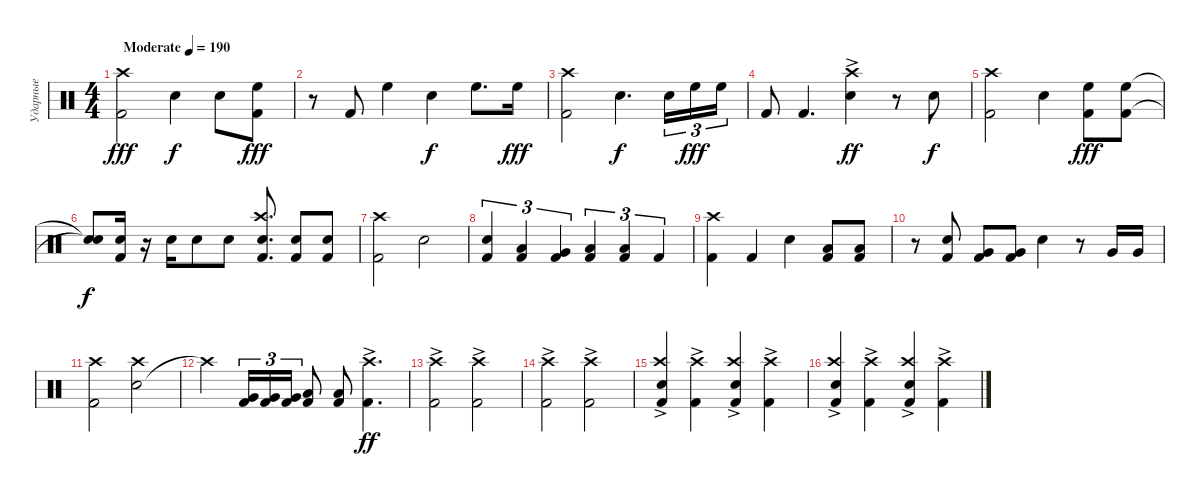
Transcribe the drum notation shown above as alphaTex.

\track ("Ударные" "Ударные") {instrument percussion}
\staff {score}
\articulation defaults
\ts (4 4)
\tempo (190 "Moderate")
\clef neutral
\ks c
("Kick (hit) 2" "Crash high (hit)").2{dy fff} "Snare (hit) 2".4{dy f} "Snare (hit) 2".8 ("Kick (hit) 2" "High Floor Tom (hit)").8{dy fff} |
r.8 "Kick (hit) 2".8 "High Floor Tom (hit)".4 "Snare (hit) 2".4{dy f} "High Floor Tom (hit)".8{d} "High Floor Tom (hit)".16{dy fff} |
("Kick (hit) 2" "Crash high (hit)").2 "Snare (hit) 2".4{d dy f} "Snare (hit) 2".16{tu (3 2)} "High Floor Tom (hit)".16{tu (3 2) dy fff} "High Floor Tom (hit)".16{tu (3 2)} |
"Kick (hit) 2".8 "Kick (hit) 2".4{d} ("Snare (hit) 2" "Crash high (hit)"{ac}).4{dy ff} r.8 "Snare (hit) 2".8{dy f} |
("Kick (hit) 2" "Crash high (hit)").2 "Snare (hit) 2".4 ("Kick (hit) 2" "High Floor Tom (hit)").8{dy fff} ("Kick (hit) 2" "High Floor Tom (hit)").8 |
("Snare (hit)"{t} "Snare (hit)"{t}).8{dy f} ("Kick (hit) 2" "Electric Snare (hit)").16 r.16 "Electric Snare (hit)".16 "Snare (hit) 2".8 "Snare (hit) 2".8 ("Kick (hit) 2" "Snare (hit) 2" "Crash high (hit)").8{d} ("Kick (hit) 2" "Electric Snare (hit)").8 ("Kick (hit) 2" "Electric Snare (hit)").8 |
("Kick (hit) 2" "Crash high (hit)").2 "Snare (hit) 2".2 |
("Kick (hit) 2" "Electric Snare (hit)").4{tu (3 2)} ("Kick (hit) 2" "Low Tom (hit)").4{tu (3 2)} ("Kick (hit) 2" "Very Low Tom (hit)").4{tu (3 2)} ("Kick (hit) 2" "Low Floor Tom (hit)").4{tu (3 2)} ("Kick (hit) 2" "Low Floor Tom (hit)").4{tu (3 2)} "Kick (hit) 2".4{tu (3 2)} |
("Kick (hit) 2" "Crash high (hit)").4 "Kick (hit) 2".4 "Snare (hit) 2".4 ("Kick (hit) 2" "Low Tom (hit)").8 ("Kick (hit) 2" "Low Tom (hit)").8 |
r.8 ("Kick (hit) 2" "Snare (hit) 2").8 ("Kick (hit) 2" "Very Low Tom (hit)").8 ("Kick (hit) 2" "Very Low Tom (hit)").8 "Snare (hit) 2".4 r.8 "Very Low Tom (hit)".16 "Very Low Tom (hit)".16 |
("Kick (hit) 2" "Crash high (hit)").2 ("Snare (hit) 2" "Crash high (hit)").2 |
"Crash high (hit)"{t}.4 ("Kick (hit) 2" "Very Low Tom (hit)").16{tu (3 2)} ("Kick (hit) 2" "Very Low Tom (hit)").16{tu (3 2)} ("Kick (hit) 2" "Very Low Tom (hit)").16{tu (3 2)} ("Kick (hit) 2" "Low Floor Tom (hit)").8 ("Kick (hit) 2" "Low Floor Tom (hit)").8 ("Kick (hit) 2" "Crash high (hit)"{ac}).4{d dy ff} |
("Kick (hit) 2" "Crash high (hit)"{ac}).2 ("Kick (hit) 2" "Crash high (hit)"{ac}).2 |
("Kick (hit) 2" "Crash high (hit)"{ac}).2 ("Kick (hit) 2" "Crash high (hit)"{ac}).2 |
("Kick (hit) 2" "Electric Snare (hit)" "Crash high (hit)"{ac}).4 ("Kick (hit) 2" "Crash high (hit)"{ac}).4 ("Kick (hit) 2" "Electric Snare (hit)" "Crash high (hit)"{ac}).4 ("Kick (hit) 2" "Crash high (hit)"{ac}).4 |
("Kick (hit) 2" "Electric Snare (hit)" "Crash high (hit)"{ac}).4 ("Kick (hit) 2" "Crash high (hit)"{ac}).4 ("Kick (hit) 2" "Electric Snare (hit)" "Crash high (hit)"{ac}).4 ("Kick (hit) 2" "Crash high (hit)"{ac}).4
